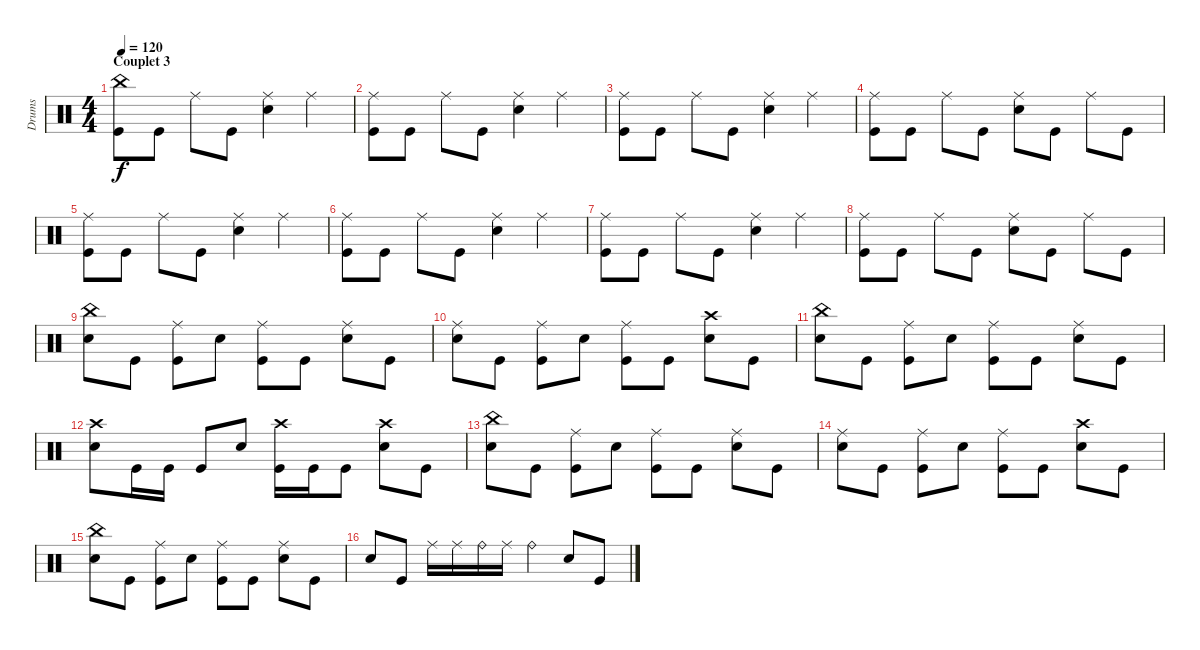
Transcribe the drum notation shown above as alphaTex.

\track ("Drums" "Drums") {instrument percussion}
\staff {score}
\articulation defaults
\ts (4 4)
\section ("" "Couplet 3")
\tempo 120
\clef neutral
\ks c
("China (hit)" "Kick (hit)").8{dy f} "Kick (hit)".8 "Ride (middle)".8 "Kick (hit)".8 ("Ride (middle)" "Electric Snare (hit)").4 "Ride (middle)".4 |
("Ride (middle)" "Kick (hit)").8 "Kick (hit)".8 "Ride (middle)".8 "Kick (hit)".8 ("Ride (middle)" "Electric Snare (hit)").4 "Ride (middle)".4 |
("Ride (middle)" "Kick (hit)").8 "Kick (hit)".8 "Ride (middle)".8 "Kick (hit)".8 ("Ride (middle)" "Electric Snare (hit)").4 "Ride (middle)".4 |
("Ride (middle)" "Kick (hit)").8 "Kick (hit)".8 "Ride (middle)".8 "Kick (hit)".8 ("Ride (middle)" "Electric Snare (hit)").8 "Kick (hit)".8 "Ride (middle)".8 "Kick (hit)".8 |
("Ride (middle)" "Kick (hit)").8 "Kick (hit)".8 "Ride (middle)".8 "Kick (hit)".8 ("Ride (middle)" "Electric Snare (hit)").4 "Ride (middle)".4 |
("Ride (middle)" "Kick (hit)").8 "Kick (hit)".8 "Ride (middle)".8 "Kick (hit)".8 ("Ride (middle)" "Electric Snare (hit)").4 "Ride (middle)".4 |
("Ride (middle)" "Kick (hit)").8 "Kick (hit)".8 "Ride (middle)".8 "Kick (hit)".8 ("Ride (middle)" "Electric Snare (hit)").4 "Ride (middle)".4 |
("Ride (middle)" "Kick (hit)").8 "Kick (hit)".8 "Ride (middle)".8 "Kick (hit)".8 ("Ride (middle)" "Electric Snare (hit)").8 "Kick (hit)".8 "Ride (middle)".8 "Kick (hit)".8 |
("China (hit)" "Electric Snare (hit)").8 "Kick (hit)".8 ("Ride (middle)" "Kick (hit)").8 "Electric Snare (hit)".8 ("Ride (middle)" "Kick (hit)").8 "Kick (hit)".8 ("Ride (middle)" "Electric Snare (hit)").8 "Kick (hit)".8 |
("Ride (middle)" "Electric Snare (hit)").8 "Kick (hit)".8 ("Ride (middle)" "Kick (hit)").8 "Electric Snare (hit)".8 ("Ride (middle)" "Kick (hit)").8 "Kick (hit)".8 ("Crash high (hit)" "Electric Snare (hit)").8 "Kick (hit)".8 |
("China (hit)" "Electric Snare (hit)").8 "Kick (hit)".8 ("Ride (middle)" "Kick (hit)").8 "Electric Snare (hit)".8 ("Ride (middle)" "Kick (hit)").8 "Kick (hit)".8 ("Ride (middle)" "Electric Snare (hit)").8 "Kick (hit)".8 |
("Crash high (hit)" "Electric Snare (hit)").8 "Kick (hit)".16 "Kick (hit)".16 "Kick (hit)".8 "Electric Snare (hit)".8 ("Crash high (hit)" "Kick (hit)").16 "Kick (hit)".16 "Kick (hit)".8 ("Crash high (hit)" "Electric Snare (hit)").8 "Kick (hit)".8 |
("China (hit)" "Electric Snare (hit)").8 "Kick (hit)".8 ("Ride (middle)" "Kick (hit)").8 "Electric Snare (hit)".8 ("Ride (middle)" "Kick (hit)").8 "Kick (hit)".8 ("Ride (middle)" "Electric Snare (hit)").8 "Kick (hit)".8 |
("Ride (middle)" "Electric Snare (hit)").8 "Kick (hit)".8 ("Ride (middle)" "Kick (hit)").8 "Electric Snare (hit)".8 ("Ride (middle)" "Kick (hit)").8 "Kick (hit)".8 ("Crash high (hit)" "Electric Snare (hit)").8 "Kick (hit)".8 |
("China (hit)" "Electric Snare (hit)").8 "Kick (hit)".8 ("Ride (middle)" "Kick (hit)").8 "Electric Snare (hit)".8 ("Ride (middle)" "Kick (hit)").8 "Kick (hit)".8 ("Ride (middle)" "Electric Snare (hit)").8 "Kick (hit)".8 |
"Electric Snare (hit)".8 "Kick (hit)".8 "Ride (middle)".16 "Ride (middle)".16 "Ride (bell)".16 "Ride (middle)".16 "Ride (bell)".4 "Electric Snare (hit)".8 "Kick (hit)".8
